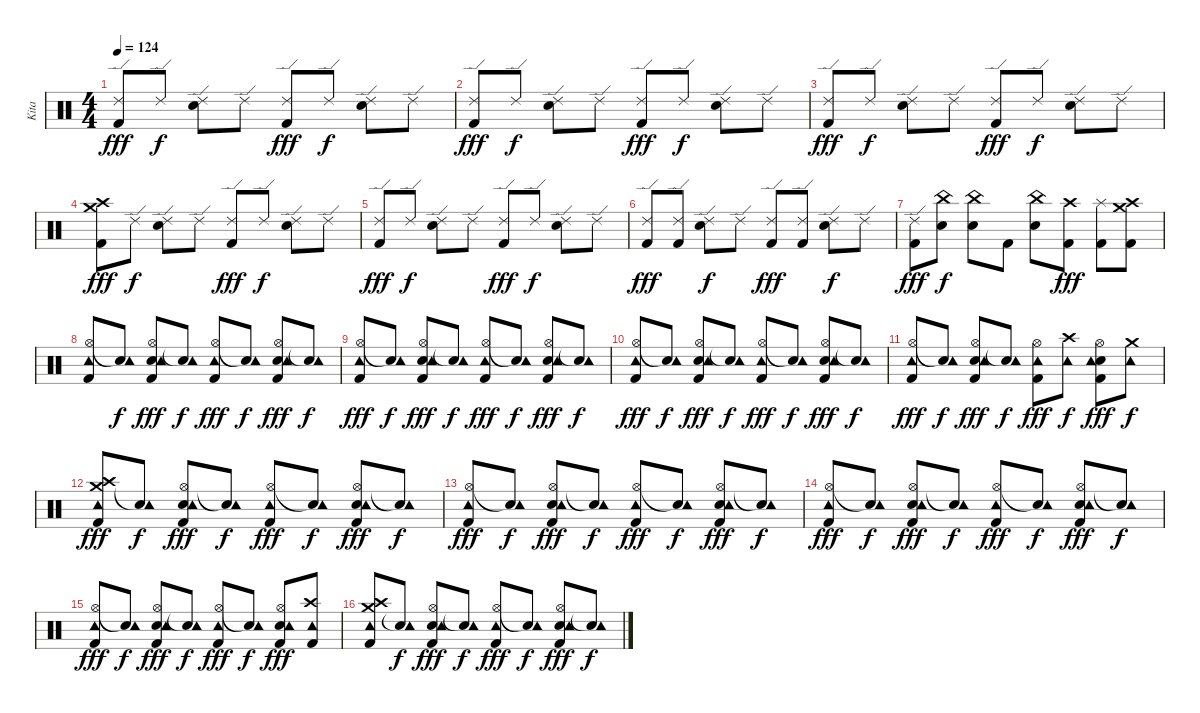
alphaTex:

\track ("Kita" "Kita") {instrument percussion}
\staff {score}
\articulation defaults
\ts (4 4)
\tempo 124
\clef neutral
\ks c
("Ride (edge) 2" "Kick (hit) 2").8{dy fff} "Ride (edge) 2".8{dy f} ("Ride (edge) 2" "Electric Snare (hit)").8 "Ride (edge) 2".8 ("Ride (edge) 2" "Kick (hit) 2").8{dy fff} "Ride (edge) 2".8{dy f} ("Ride (edge) 2" "Electric Snare (hit)").8 "Ride (edge) 2".8 |
("Ride (edge) 2" "Kick (hit) 2").8{dy fff} "Ride (edge) 2".8{dy f} ("Ride (edge) 2" "Electric Snare (hit)").8 "Ride (edge) 2".8 ("Ride (edge) 2" "Kick (hit) 2").8{dy fff} "Ride (edge) 2".8{dy f} ("Ride (edge) 2" "Electric Snare (hit)").8 "Ride (edge) 2".8 |
("Ride (edge) 2" "Kick (hit) 2").8{dy fff} "Ride (edge) 2".8{dy f} ("Ride (edge) 2" "Electric Snare (hit)").8 "Ride (edge) 2".8 ("Ride (edge) 2" "Kick (hit) 2").8{dy fff} "Ride (edge) 2".8{dy f} ("Ride (edge) 2" "Electric Snare (hit)").8 "Ride (edge) 2".8 |
("Crash high (hit)" "Kick (hit) 2" "Crash medium (hit)").8{dy fff} "Ride (edge) 2".8{dy f} ("Ride (edge) 2" "Electric Snare (hit)").8 "Ride (edge) 2".8 ("Ride (edge) 2" "Kick (hit) 2").8{dy fff} "Ride (edge) 2".8{dy f} ("Ride (edge) 2" "Electric Snare (hit)").8 "Ride (edge) 2".8 |
("Ride (edge) 2" "Kick (hit) 2").8{dy fff} "Ride (edge) 2".8{dy f} ("Ride (edge) 2" "Electric Snare (hit)").8 "Ride (edge) 2".8 ("Ride (edge) 2" "Kick (hit) 2").8{dy fff} "Ride (edge) 2".8{dy f} ("Ride (edge) 2" "Electric Snare (hit)").8 "Ride (edge) 2".8 |
("Ride (edge) 2" "Kick (hit) 2").8{dy fff} ("Ride (edge) 2" "Kick (hit) 2").8 ("Ride (edge) 2" "Electric Snare (hit)").8{dy f} "Ride (edge) 2".8 ("Ride (edge) 2" "Kick (hit) 2").8{dy fff} ("Ride (edge) 2" "Kick (hit) 2").8 ("Ride (edge) 2" "Electric Snare (hit)").8{dy f} "Ride (edge) 2".8 |
("Ride (edge) 2" "Kick (hit) 2").8{dy fff} ("Electric Snare (hit)" "China (hit)").8{dy f} ("Electric Snare (hit)" "China (hit)").8 "Kick (hit) 2".8 ("Electric Snare (hit)" "China (hit)").8 ("Crash high (hit)" "Kick (hit) 2").8{dy fff} ("Splash (hit)" "Kick (hit) 2").8 ("Crash medium (hit)" "Kick (hit) 2" "Crash high (hit)").8 |
("Hi-Hat (open)" "Kick (hit) 2" "Tambourine (hit)").8 ("Snare (hit)"{t} "Tambourine (hit)").8{dy f} ("Hi-Hat (open)" "Kick (hit) 2" "Electric Snare (hit)" "Tambourine (hit)").8{dy fff} ("Snare (hit)"{t} "Tambourine (hit)").8{dy f} ("Hi-Hat (open)" "Kick (hit) 2" "Tambourine (hit)").8{dy fff} ("Snare (hit)"{t} "Tambourine (hit)").8{dy f} ("Hi-Hat (open)" "Kick (hit) 2" "Electric Snare (hit)" "Tambourine (hit)").8{dy fff} ("Snare (hit)"{t} "Tambourine (hit)").8{dy f} |
("Hi-Hat (open)" "Kick (hit) 2" "Tambourine (hit)").8{dy fff} ("Snare (hit)"{t} "Tambourine (hit)").8{dy f} ("Hi-Hat (open)" "Kick (hit) 2" "Electric Snare (hit)" "Tambourine (hit)").8{dy fff} ("Snare (hit)"{t} "Tambourine (hit)").8{dy f} ("Hi-Hat (open)" "Kick (hit) 2" "Tambourine (hit)").8{dy fff} ("Snare (hit)"{t} "Tambourine (hit)").8{dy f} ("Hi-Hat (open)" "Kick (hit) 2" "Electric Snare (hit)" "Tambourine (hit)").8{dy fff} ("Snare (hit)"{t} "Tambourine (hit)").8{dy f} |
("Hi-Hat (open)" "Kick (hit) 2" "Tambourine (hit)").8{dy fff} ("Snare (hit)"{t} "Tambourine (hit)").8{dy f} ("Hi-Hat (open)" "Kick (hit) 2" "Electric Snare (hit)" "Tambourine (hit)").8{dy fff} ("Snare (hit)"{t} "Tambourine (hit)").8{dy f} ("Hi-Hat (open)" "Kick (hit) 2" "Tambourine (hit)").8{dy fff} ("Snare (hit)"{t} "Tambourine (hit)").8{dy f} ("Hi-Hat (open)" "Kick (hit) 2" "Electric Snare (hit)" "Tambourine (hit)").8{dy fff} ("Snare (hit)"{t} "Tambourine (hit)").8{dy f} |
("Hi-Hat (open)" "Kick (hit) 2" "Tambourine (hit)").8{dy fff} ("Snare (hit)"{t} "Tambourine (hit)").8{dy f} ("Hi-Hat (open)" "Kick (hit) 2" "Electric Snare (hit)" "Tambourine (hit)").8{dy fff} ("Snare (hit)"{t} "Tambourine (hit)").8{dy f} ("Hi-Hat (open)" "Kick (hit) 2" "Tambourine (hit)").8{dy fff} ("Crash high (hit)" "Tambourine (hit)").8{dy f} ("Hi-Hat (open)" "Kick (hit) 2" "Electric Snare (hit)" "Tambourine (hit)").8{dy fff} ("Crash medium (hit)" "Tambourine (hit)").8{dy f} |
("Crash high (hit)" "Kick (hit) 2" "Crash medium (hit)" "Tambourine (hit)").8{dy fff} ("Snare (hit)"{t} "Tambourine (hit)").8{dy f} ("Hi-Hat (open)" "Kick (hit) 2" "Electric Snare (hit)" "Tambourine (hit)").8{dy fff} ("Snare (hit)"{t} "Tambourine (hit)").8{dy f} ("Hi-Hat (open)" "Kick (hit) 2" "Tambourine (hit)").8{dy fff} ("Snare (hit)"{t} "Tambourine (hit)").8{dy f} ("Hi-Hat (open)" "Kick (hit) 2" "Electric Snare (hit)" "Tambourine (hit)").8{dy fff} ("Snare (hit)"{t} "Tambourine (hit)").8{dy f} |
("Hi-Hat (open)" "Kick (hit) 2" "Tambourine (hit)").8{dy fff} ("Snare (hit)"{t} "Tambourine (hit)").8{dy f} ("Hi-Hat (open)" "Kick (hit) 2" "Electric Snare (hit)" "Tambourine (hit)").8{dy fff} ("Snare (hit)"{t} "Tambourine (hit)").8{dy f} ("Hi-Hat (open)" "Kick (hit) 2" "Tambourine (hit)").8{dy fff} ("Snare (hit)"{t} "Tambourine (hit)").8{dy f} ("Hi-Hat (open)" "Kick (hit) 2" "Electric Snare (hit)" "Tambourine (hit)").8{dy fff} ("Snare (hit)"{t} "Tambourine (hit)").8{dy f} |
("Hi-Hat (open)" "Kick (hit) 2" "Tambourine (hit)").8{dy fff} ("Snare (hit)"{t} "Tambourine (hit)").8{dy f} ("Hi-Hat (open)" "Kick (hit) 2" "Electric Snare (hit)" "Tambourine (hit)").8{dy fff} ("Snare (hit)"{t} "Tambourine (hit)").8{dy f} ("Hi-Hat (open)" "Kick (hit) 2" "Tambourine (hit)").8{dy fff} ("Snare (hit)"{t} "Tambourine (hit)").8{dy f} ("Hi-Hat (open)" "Kick (hit) 2" "Electric Snare (hit)" "Tambourine (hit)").8{dy fff} ("Snare (hit)"{t} "Tambourine (hit)").8{dy f} |
("Hi-Hat (open)" "Kick (hit) 2" "Tambourine (hit)").8{dy fff} ("Snare (hit)"{t} "Tambourine (hit)").8{dy f} ("Hi-Hat (open)" "Kick (hit) 2" "Electric Snare (hit)" "Tambourine (hit)").8{dy fff} ("Snare (hit)"{t} "Tambourine (hit)").8{dy f} ("Hi-Hat (open)" "Kick (hit) 2" "Tambourine (hit)").8{dy fff} ("Snare (hit)"{t} "Tambourine (hit)").8{dy f} ("Hi-Hat (open)" "Kick (hit) 2" "Electric Snare (hit)" "Tambourine (hit)").8{dy fff} ("Crash high (hit)" "Kick (hit) 2" "Tambourine (hit)").8 |
("Crash medium (hit)" "Kick (hit) 2" "Crash high (hit)" "Tambourine (hit)").8 ("Snare (hit)"{t} "Tambourine (hit)").8{dy f} ("Hi-Hat (open)" "Kick (hit) 2" "Electric Snare (hit)" "Tambourine (hit)").8{dy fff} ("Snare (hit)"{t} "Tambourine (hit)").8{dy f} ("Hi-Hat (open)" "Kick (hit) 2" "Tambourine (hit)").8{dy fff} ("Snare (hit)"{t} "Tambourine (hit)").8{dy f} ("Hi-Hat (open)" "Kick (hit) 2" "Electric Snare (hit)" "Tambourine (hit)").8{dy fff} ("Snare (hit)"{t} "Tambourine (hit)").8{dy f}
